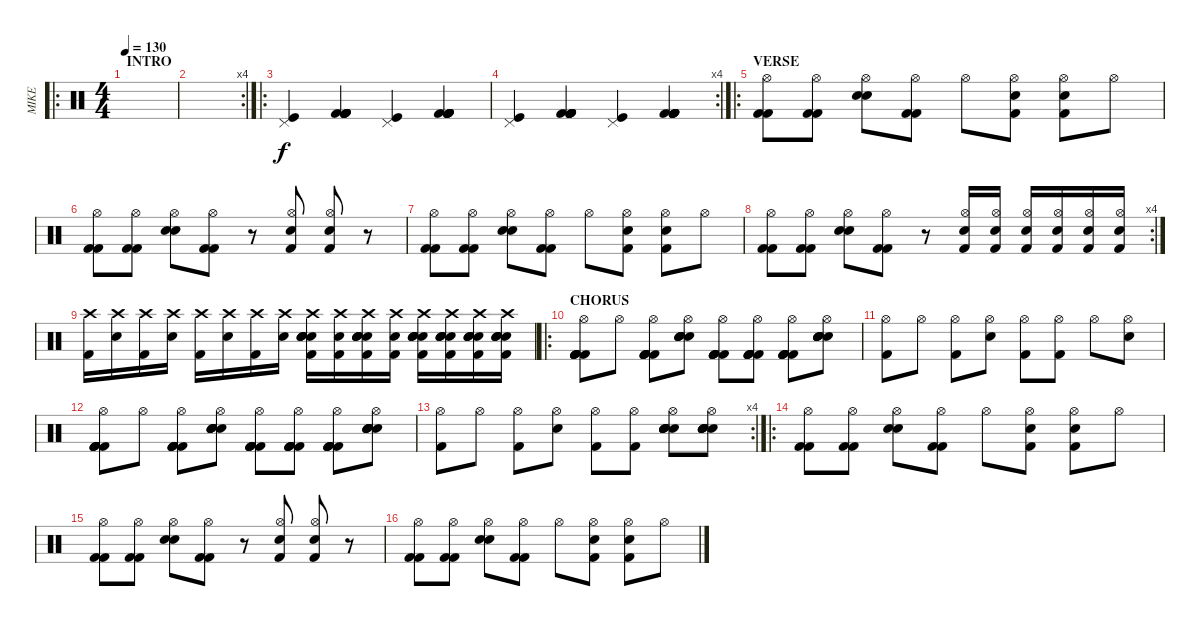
\track ("MIKE" "MIKE") {instrument percussion}
\staff {score}
\articulation defaults
\ro
\ts (4 4)
\section ("" "INTRO")
\tempo 130
\clef neutral
\ks c
|
\rc 4
|
\ro
("Pedal Hi-Hat (hit)" "Kick (hit)").4 ("Kick (hit) 2" "Kick (hit) 2" "Kick (hit) 2" "Kick (hit) 2" "Kick (hit) 2" "Kick (hit) 2").4 ("Pedal Hi-Hat (hit)" "Kick (hit)").4 ("Kick (hit) 2" "Kick (hit) 2" "Kick (hit) 2" "Kick (hit) 2" "Kick (hit) 2" "Kick (hit) 2").4 |
\rc 4
("Pedal Hi-Hat (hit)" "Kick (hit)").4 ("Kick (hit) 2" "Kick (hit) 2" "Kick (hit) 2" "Kick (hit) 2" "Kick (hit) 2" "Kick (hit) 2").4 ("Pedal Hi-Hat (hit)" "Kick (hit)").4 ("Kick (hit) 2" "Kick (hit) 2" "Kick (hit) 2" "Kick (hit) 2" "Kick (hit) 2" "Kick (hit) 2").4 |
\ro
\section ("" "VERSE")
("Hi-Hat (open)" "Kick (hit) 2" "Kick (hit) 2").8{dy f} ("Hi-Hat (open)" "Kick (hit) 2" "Kick (hit) 2").8 ("Hi-Hat (open)" "Electric Snare (hit)" "Electric Snare (hit)").8 ("Hi-Hat (open)" "Kick (hit) 2" "Kick (hit) 2").8 "Hi-Hat (open)".8 ("Hi-Hat (open)" "Kick (hit) 2" "Electric Snare (hit)").8 ("Hi-Hat (open)" "Kick (hit) 2" "Electric Snare (hit)").8 "Hi-Hat (open)".8 |
("Hi-Hat (open)" "Kick (hit) 2" "Kick (hit) 2").8 ("Hi-Hat (open)" "Kick (hit) 2" "Kick (hit) 2").8 ("Hi-Hat (open)" "Electric Snare (hit)" "Electric Snare (hit)").8 ("Hi-Hat (open)" "Kick (hit) 2" "Kick (hit) 2").8 r.8 ("Hi-Hat (open)" "Kick (hit) 2" "Electric Snare (hit)").8 ("Hi-Hat (open)" "Kick (hit) 2" "Electric Snare (hit)").8 r.8 |
("Hi-Hat (open)" "Kick (hit) 2" "Kick (hit) 2").8 ("Hi-Hat (open)" "Kick (hit) 2" "Kick (hit) 2").8 ("Hi-Hat (open)" "Electric Snare (hit)" "Electric Snare (hit)").8 ("Hi-Hat (open)" "Kick (hit) 2" "Kick (hit) 2").8 "Hi-Hat (open)".8 ("Hi-Hat (open)" "Kick (hit) 2" "Electric Snare (hit)").8 ("Hi-Hat (open)" "Kick (hit) 2" "Electric Snare (hit)").8 "Hi-Hat (open)".8 |
\rc 4
("Hi-Hat (open)" "Kick (hit) 2" "Kick (hit) 2").8 ("Hi-Hat (open)" "Kick (hit) 2" "Kick (hit) 2").8 ("Hi-Hat (open)" "Electric Snare (hit)" "Electric Snare (hit)").8 ("Hi-Hat (open)" "Kick (hit) 2" "Kick (hit) 2").8 r.8 ("Hi-Hat (open)" "Kick (hit) 2" "Electric Snare (hit)").16 ("Hi-Hat (open)" "Kick (hit) 2" "Electric Snare (hit)").16 ("Hi-Hat (open)" "Kick (hit) 2" "Electric Snare (hit)").16 ("Hi-Hat (open)" "Kick (hit) 2" "Electric Snare (hit)").16 ("Hi-Hat (open)" "Kick (hit) 2" "Electric Snare (hit)").16 ("Hi-Hat (open)" "Kick (hit) 2" "Electric Snare (hit)").16 |
("Crash high (hit)" "Kick (hit) 2").16 ("Crash high (hit)" "Electric Snare (hit)").16 ("Crash high (hit)" "Kick (hit) 2").16 ("Crash high (hit)" "Electric Snare (hit)").16 ("Crash high (hit)" "Kick (hit) 2").16 ("Crash high (hit)" "Electric Snare (hit)").16 ("Crash high (hit)" "Kick (hit) 2").16 ("Crash high (hit)" "Electric Snare (hit)").16 ("Electric Snare (hit)" "Electric Snare (hit)" "Electric Snare (hit)" "Crash high (hit)" "Kick (hit) 2" "Electric Snare (hit)").16 ("Crash high (hit)" "Kick (hit) 2" "Electric Snare (hit)").16 ("Electric Snare (hit)" "Electric Snare (hit)" "Electric Snare (hit)" "Crash high (hit)" "Kick (hit) 2" "Electric Snare (hit)").16 ("Crash high (hit)" "Kick (hit) 2" "Electric Snare (hit)").16 ("Electric Snare (hit)" "Electric Snare (hit)" "Electric Snare (hit)" "Crash high (hit)" "Kick (hit) 2" "Electric Snare (hit)").16 ("Electric Snare (hit)" "Electric Snare (hit)" "Electric Snare (hit)" "Crash high (hit)" "Kick (hit) 2" "Electric Snare (hit)").16 ("Electric Snare (hit)" "Electric Snare (hit)" "Electric Snare (hit)" "Crash high (hit)" "Kick (hit) 2" "Electric Snare (hit)").16 ("Electric Snare (hit)" "Electric Snare (hit)" "Electric Snare (hit)" "Crash high (hit)" "Kick (hit) 2" "Electric Snare (hit)").16 |
\ro
\section ("" "CHORUS")
("Kick (hit) 2" "Kick (hit) 2" "Kick (hit) 2" "Kick (hit) 2" "Kick (hit) 2" "Hi-Hat (open)").8 "Hi-Hat (open)".8 ("Kick (hit) 2" "Kick (hit) 2" "Kick (hit) 2" "Kick (hit) 2" "Kick (hit) 2" "Hi-Hat (open)").8 ("Electric Snare (hit)" "Electric Snare (hit)" "Electric Snare (hit)" "Electric Snare (hit)" "Electric Snare (hit)" "Hi-Hat (open)").8 ("Kick (hit) 2" "Kick (hit) 2" "Kick (hit) 2" "Kick (hit) 2" "Kick (hit) 2" "Hi-Hat (open)").8 ("Kick (hit) 2" "Kick (hit) 2" "Kick (hit) 2" "Kick (hit) 2" "Kick (hit) 2" "Hi-Hat (open)").8 ("Kick (hit) 2" "Kick (hit) 2" "Kick (hit) 2" "Kick (hit) 2" "Kick (hit) 2" "Hi-Hat (open)").8 ("Electric Snare (hit)" "Electric Snare (hit)" "Electric Snare (hit)" "Electric Snare (hit)" "Electric Snare (hit)" "Hi-Hat (open)").8 |
("Kick (hit) 2" "Hi-Hat (open)").8 "Hi-Hat (open)".8 ("Kick (hit) 2" "Hi-Hat (open)").8 ("Electric Snare (hit)" "Hi-Hat (open)").8 ("Kick (hit) 2" "Hi-Hat (open)").8 ("Kick (hit) 2" "Hi-Hat (open)").8 "Hi-Hat (open)".8 ("Electric Snare (hit)" "Hi-Hat (open)").8 |
("Kick (hit) 2" "Kick (hit) 2" "Kick (hit) 2" "Kick (hit) 2" "Kick (hit) 2" "Hi-Hat (open)").8 "Hi-Hat (open)".8 ("Kick (hit) 2" "Kick (hit) 2" "Kick (hit) 2" "Kick (hit) 2" "Kick (hit) 2" "Hi-Hat (open)").8 ("Electric Snare (hit)" "Electric Snare (hit)" "Electric Snare (hit)" "Electric Snare (hit)" "Electric Snare (hit)" "Hi-Hat (open)").8 ("Kick (hit) 2" "Kick (hit) 2" "Kick (hit) 2" "Kick (hit) 2" "Kick (hit) 2" "Hi-Hat (open)").8 ("Kick (hit) 2" "Kick (hit) 2" "Kick (hit) 2" "Kick (hit) 2" "Kick (hit) 2" "Hi-Hat (open)").8 ("Kick (hit) 2" "Kick (hit) 2" "Kick (hit) 2" "Kick (hit) 2" "Kick (hit) 2" "Hi-Hat (open)").8 ("Electric Snare (hit)" "Electric Snare (hit)" "Electric Snare (hit)" "Electric Snare (hit)" "Electric Snare (hit)" "Hi-Hat (open)").8 |
\rc 4
("Kick (hit) 2" "Hi-Hat (open)").8 "Hi-Hat (open)".8 ("Kick (hit) 2" "Hi-Hat (open)").8 ("Electric Snare (hit)" "Hi-Hat (open)").8 ("Kick (hit) 2" "Hi-Hat (open)").8 ("Kick (hit) 2" "Hi-Hat (open)").8 ("Electric Snare (hit)" "Electric Snare (hit)" "Electric Snare (hit)" "Electric Snare (hit)" "Electric Snare (hit)" "Hi-Hat (open)").8 ("Electric Snare (hit)" "Electric Snare (hit)" "Electric Snare (hit)" "Electric Snare (hit)" "Electric Snare (hit)" "Hi-Hat (open)").8 |
\ro
("Hi-Hat (open)" "Kick (hit) 2" "Kick (hit) 2").8 ("Hi-Hat (open)" "Kick (hit) 2" "Kick (hit) 2").8 ("Hi-Hat (open)" "Electric Snare (hit)" "Electric Snare (hit)").8 ("Hi-Hat (open)" "Kick (hit) 2" "Kick (hit) 2").8 "Hi-Hat (open)".8 ("Hi-Hat (open)" "Kick (hit) 2" "Electric Snare (hit)").8 ("Hi-Hat (open)" "Kick (hit) 2" "Electric Snare (hit)").8 "Hi-Hat (open)".8 |
("Hi-Hat (open)" "Kick (hit) 2" "Kick (hit) 2").8 ("Hi-Hat (open)" "Kick (hit) 2" "Kick (hit) 2").8 ("Hi-Hat (open)" "Electric Snare (hit)" "Electric Snare (hit)").8 ("Hi-Hat (open)" "Kick (hit) 2" "Kick (hit) 2").8 r.8 ("Hi-Hat (open)" "Kick (hit) 2" "Electric Snare (hit)").8 ("Hi-Hat (open)" "Kick (hit) 2" "Electric Snare (hit)").8 r.8 |
("Hi-Hat (open)" "Kick (hit) 2" "Kick (hit) 2").8 ("Hi-Hat (open)" "Kick (hit) 2" "Kick (hit) 2").8 ("Hi-Hat (open)" "Electric Snare (hit)" "Electric Snare (hit)").8 ("Hi-Hat (open)" "Kick (hit) 2" "Kick (hit) 2").8 "Hi-Hat (open)".8 ("Hi-Hat (open)" "Kick (hit) 2" "Electric Snare (hit)").8 ("Hi-Hat (open)" "Kick (hit) 2" "Electric Snare (hit)").8 "Hi-Hat (open)".8
